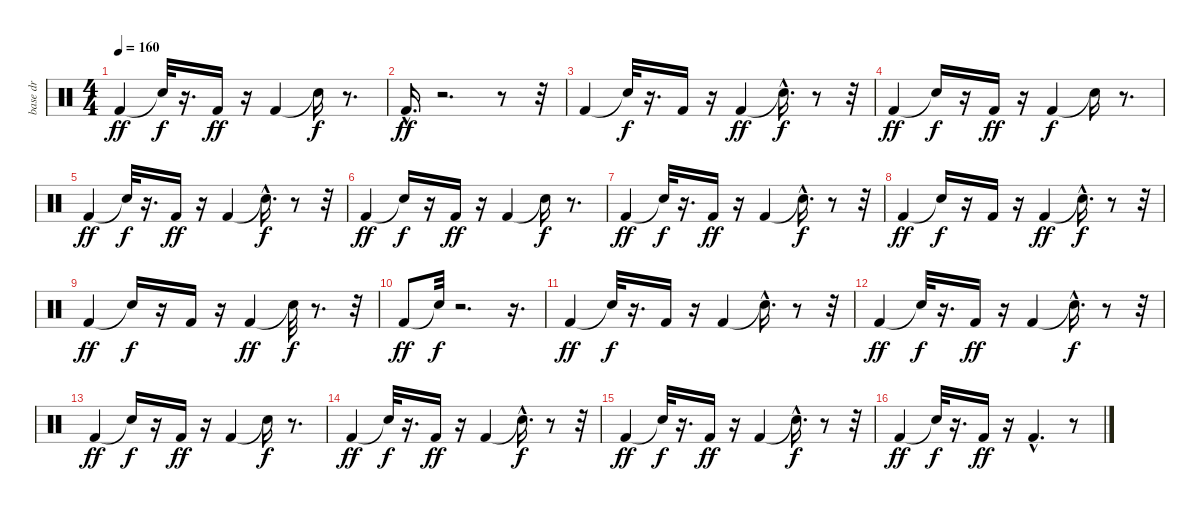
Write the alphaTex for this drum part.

\track ("base dr" "base dr") {instrument percussion}
\staff {score}
\articulation defaults
\ts (4 4)
\tempo 160
\clef neutral
\ks c "Kick (hit) 2".4{dy ff} "Snare (hit)"{t}.32{dy f}
r.16{d} "Kick (hit) 2".16{dy ff} r.16 "Kick (hit) 2".4 "Snare (hit)"{t}.16{dy f} r.8{d} |
"Kick (hit) 2"{hac}.16{d dy ff} r.2{d} r.8 r.32 |
"Kick (hit) 2".4 "Snare (hit)"{t}.32{dy f} r.16{d} "Kick (hit) 2".16 r.16 "Kick (hit) 2".4{dy ff} "Snare (hit)"{hac t}.16{d dy f} r.8 r.32 |
"Kick (hit) 2".4{dy ff} "Snare (hit)"{t}.16{dy f} r.16 "Kick (hit) 2".16{dy ff} r.16 "Kick (hit) 2".4{dy f} "Snare (hit)"{t}.16 r.8{d} |
"Kick (hit) 2".4{dy ff} "Snare (hit)"{t}.32{dy f} r.16{d} "Kick (hit) 2".16{dy ff} r.16 "Kick (hit) 2".4 "Snare (hit)"{hac t}.16{d dy f} r.8 r.32 |
"Kick (hit) 2".4{dy ff} "Snare (hit)"{t}.16{dy f} r.16 "Kick (hit) 2".16{dy ff} r.16 "Kick (hit) 2".4 "Snare (hit)"{t}.16{dy f} r.8{d} |
"Kick (hit) 2".4{dy ff} "Snare (hit)"{t}.32{dy f} r.16{d} "Kick (hit) 2".16{dy ff} r.16 "Kick (hit) 2".4 "Snare (hit)"{hac t}.16{d dy f} r.8 r.32 |
"Kick (hit) 2".4{dy ff} "Snare (hit)"{t}.16{dy f} r.16 "Kick (hit) 2".16 r.16 "Kick (hit) 2".4{dy ff} "Snare (hit)"{hac t}.16{d dy f} r.8 r.32 |
"Kick (hit) 2".4{dy ff} "Snare (hit)"{t}.16{dy f} r.16 "Kick (hit) 2".16 r.16 "Kick (hit) 2".4{dy ff} "Snare (hit)"{t}.32{dy f} r.8{d} r.32 |
"Kick (hit) 2".8{dy ff} "Snare (hit)"{t}.32{dy f} r.2{d} r.16{d} |
"Kick (hit) 2".4{dy ff} "Snare (hit)"{t}.32{dy f} r.16{d} "Kick (hit) 2".16 r.16 "Kick (hit) 2".4 "Snare (hit)"{hac t}.16{d} r.8 r.32 |
"Kick (hit) 2".4{dy ff} "Snare (hit)"{t}.32{dy f} r.16{d} "Kick (hit) 2".16{dy ff} r.16 "Kick (hit) 2".4 "Snare (hit)"{hac t}.16{d dy f} r.8 r.32 |
"Kick (hit) 2".4{dy ff} "Snare (hit)"{t}.16{dy f} r.16 "Kick (hit) 2".16{dy ff} r.16 "Kick (hit) 2".4 "Snare (hit)"{t}.16{dy f} r.8{d} |
"Kick (hit) 2".4{dy ff} "Snare (hit)"{t}.32{dy f} r.16{d} "Kick (hit) 2".16{dy ff} r.16 "Kick (hit) 2".4 "Snare (hit)"{hac t}.16{d dy f} r.8 r.32 |
"Kick (hit) 2".4{dy ff} "Snare (hit)"{t}.32{dy f} r.16{d} "Kick (hit) 2".16{dy ff} r.16 "Kick (hit) 2".4 "Snare (hit)"{hac t}.16{d dy f} r.8 r.32 |
"Kick (hit) 2".4{dy ff} "Snare (hit)"{t}.32{dy f} r.16{d} "Kick (hit) 2".16{dy ff} r.16 "Kick (hit) 2"{hac}.4{d} r.8
